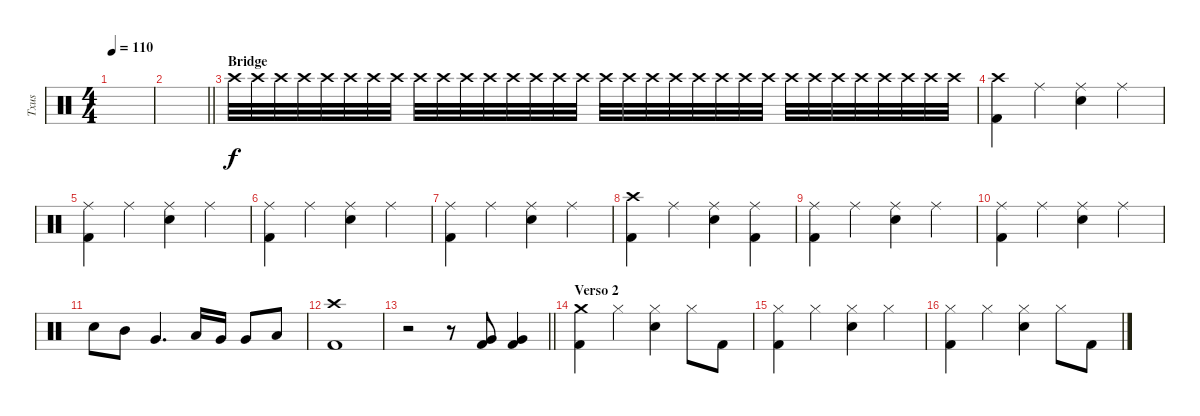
\track ("Txus" "Txus") {instrument percussion}
\staff {score}
\articulation defaults
\ts (4 4)
\tempo 110
\clef neutral
\ks c
|
\barLineRight lightlight
|
\section ("" "Bridge")
"Crash high (hit)".32{volume 13} "Crash high (hit)".32 "Crash high (hit)".32 "Crash high (hit)".32 "Crash high (hit)".32 "Crash high (hit)".32 "Crash high (hit)".32 "Crash high (hit)".32 "Crash high (hit)".32 "Crash high (hit)".32 "Crash high (hit)".32 "Crash high (hit)".32 "Crash high (hit)".32 "Crash high (hit)".32 "Crash high (hit)".32 "Crash high (hit)".32 "Crash high (hit)".32 "Crash high (hit)".32 "Crash high (hit)".32 "Crash high (hit)".32 "Crash high (hit)".32 "Crash high (hit)".32 "Crash high (hit)".32 "Crash high (hit)".32 "Crash high (hit)".32 "Crash high (hit)".32 "Crash high (hit)".32 "Crash high (hit)".32 "Crash high (hit)".32 "Crash high (hit)".32 "Crash high (hit)".32 "Crash high (hit)".32 |
("Crash high (hit)" "Kick (hit) 2").4 "Ride (middle)".4 ("Ride (middle)" "Electric Snare (hit)").4 "Ride (middle)".4 |
("Ride (middle)" "Kick (hit) 2").4 "Ride (middle)".4 ("Ride (middle)" "Electric Snare (hit)").4 "Ride (middle)".4 |
("Ride (middle)" "Kick (hit) 2").4 "Ride (middle)".4 ("Ride (middle)" "Electric Snare (hit)").4 "Ride (middle)".4 |
("Ride (middle)" "Kick (hit) 2").4 "Ride (middle)".4 ("Ride (middle)" "Electric Snare (hit)").4 "Ride (middle)".4 |
("Crash high (hit)" "Kick (hit) 2").4 "Ride (middle)".4 ("Ride (middle)" "Electric Snare (hit)").4 ("Ride (middle)" "Kick (hit) 2").4 |
("Ride (middle)" "Kick (hit) 2").4 "Ride (middle)".4 ("Ride (middle)" "Electric Snare (hit)").4 "Ride (middle)".4 |
("Ride (middle)" "Kick (hit) 2").4 "Ride (middle)".4 ("Ride (middle)" "Electric Snare (hit)").4 "Ride (middle)".4 |
"Electric Snare (hit)".8 "Mid Tom (hit)".8 "Very Low Tom (hit)".4{d} "Low Tom (hit)".16 "Very Low Tom (hit)".16 "Very Low Tom (hit)".8 "Low Floor Tom (hit)".8 |
("Crash high (hit)" "Kick (hit) 2").1 |
\barLineRight lightlight
r.2 r.8 ("Very Low Tom (hit)" "Kick (hit) 2").8 ("Very Low Tom (hit)" "Kick (hit) 2").4 |
\section ("" "Verso 2")
("Crash medium (hit)" "Kick (hit) 2").4 "Hi-Hat (closed)".4 ("Hi-Hat (closed)" "Electric Snare (hit)").4 "Hi-Hat (closed)".8 "Kick (hit) 2".8 |
("Hi-Hat (closed)" "Kick (hit) 2").4 "Hi-Hat (closed)".4 ("Hi-Hat (closed)" "Electric Snare (hit)").4 "Hi-Hat (closed)".4 |
("Hi-Hat (closed)" "Kick (hit) 2").4 "Hi-Hat (closed)".4 ("Hi-Hat (closed)" "Electric Snare (hit)").4 "Hi-Hat (closed)".8 "Kick (hit) 2".8
